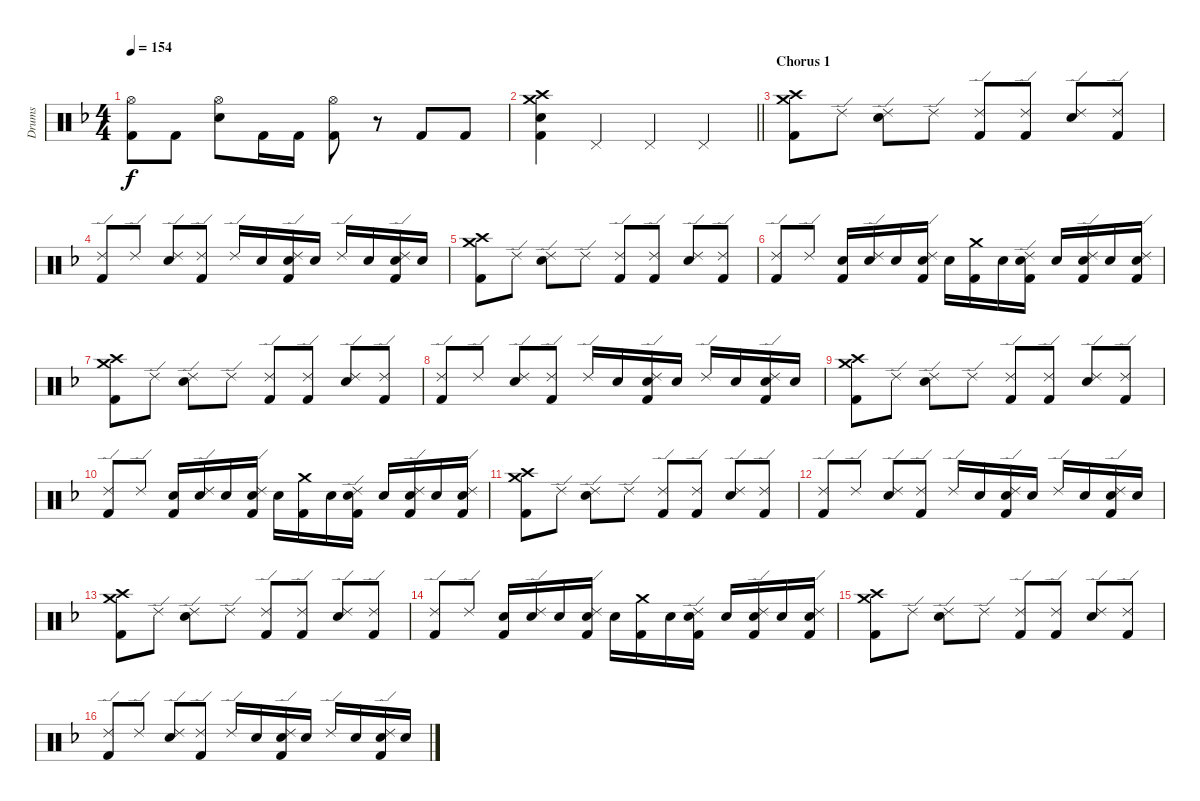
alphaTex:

\track ("Drums" "Drums") {instrument percussion}
\staff {score}
\articulation defaults
\ts (4 4)
\tempo 154
\clef neutral
\ks f
("Hi-Hat (open)" "Kick (hit) 2").8{dy f} "Kick (hit) 2".8 ("Hi-Hat (open)" "Electric Snare (hit)").8 "Kick (hit) 2".16 "Kick (hit) 2".16 ("Hi-Hat (open)" "Kick (hit) 2").8 r.8 "Kick (hit) 2".8 "Kick (hit) 2".8 |
\barLineRight lightlight
("Crash medium (hit)" "Crash high (hit)" "Electric Snare (hit)" "Kick (hit) 2").4 "Pedal Hi-Hat (hit)".4 "Pedal Hi-Hat (hit)".4 "Pedal Hi-Hat (hit)".4 |
\section ("" "Chorus 1")
("Crash high (hit)" "Crash medium (hit)" "Kick (hit) 2").8 "Ride (edge) 2".8 ("Ride (edge) 2" "Electric Snare (hit)").8 "Ride (edge) 2".8 ("Ride (edge) 2" "Kick (hit) 2").8 ("Ride (edge) 2" "Kick (hit) 2").8 ("Ride (edge) 2" "Electric Snare (hit)").8 ("Ride (edge) 2" "Kick (hit) 2").8 |
("Ride (edge) 2" "Kick (hit) 2").8 "Ride (edge) 2".8 ("Ride (edge) 2" "Electric Snare (hit)").8 ("Ride (edge) 2" "Kick (hit) 2").8 "Ride (edge) 2".16 "Electric Snare (hit)".16 ("Ride (edge) 2" "Electric Snare (hit)" "Kick (hit) 2").16 "Electric Snare (hit)".16 "Ride (edge) 2".16 "Electric Snare (hit)".16 ("Ride (edge) 2" "Electric Snare (hit)" "Kick (hit) 2").16 "Electric Snare (hit)".16 |
("Crash high (hit)" "Crash medium (hit)" "Kick (hit) 2").8 "Ride (edge) 2".8 ("Ride (edge) 2" "Electric Snare (hit)").8 "Ride (edge) 2".8 ("Ride (edge) 2" "Kick (hit) 2").8 ("Ride (edge) 2" "Kick (hit) 2").8 ("Ride (edge) 2" "Electric Snare (hit)").8 ("Ride (edge) 2" "Kick (hit) 2").8 |
("Ride (edge) 2" "Kick (hit) 2").8 "Ride (edge) 2".8 ("Electric Snare (hit)" "Kick (hit) 2").16 ("Ride (edge) 2" "Electric Snare (hit)").16 "Electric Snare (hit)".16 ("Ride (edge) 2" "Electric Snare (hit)" "Kick (hit) 2").16 "Electric Snare (hit)".16 ("Crash medium (hit)" "Kick (hit) 2").16 "Electric Snare (hit)".16 ("Ride (edge) 2" "Electric Snare (hit)" "Kick (hit) 2").16 "Electric Snare (hit)".16 ("Ride (edge) 2" "Electric Snare (hit)" "Kick (hit) 2").16 "Electric Snare (hit)".16 ("Ride (edge) 2" "Electric Snare (hit)" "Kick (hit) 2").16 |
("Crash high (hit)" "Crash medium (hit)" "Kick (hit) 2").8 "Ride (edge) 2".8 ("Ride (edge) 2" "Electric Snare (hit)").8 "Ride (edge) 2".8 ("Ride (edge) 2" "Kick (hit) 2").8 ("Ride (edge) 2" "Kick (hit) 2").8 ("Ride (edge) 2" "Electric Snare (hit)").8 ("Ride (edge) 2" "Kick (hit) 2").8 |
("Ride (edge) 2" "Kick (hit) 2").8 "Ride (edge) 2".8 ("Ride (edge) 2" "Electric Snare (hit)").8 ("Ride (edge) 2" "Kick (hit) 2").8 "Ride (edge) 2".16 "Electric Snare (hit)".16 ("Ride (edge) 2" "Electric Snare (hit)" "Kick (hit) 2").16 "Electric Snare (hit)".16 "Ride (edge) 2".16 "Electric Snare (hit)".16 ("Ride (edge) 2" "Electric Snare (hit)" "Kick (hit) 2").16 "Electric Snare (hit)".16 |
("Crash high (hit)" "Crash medium (hit)" "Kick (hit) 2").8 "Ride (edge) 2".8 ("Ride (edge) 2" "Electric Snare (hit)").8 "Ride (edge) 2".8 ("Ride (edge) 2" "Kick (hit) 2").8 ("Ride (edge) 2" "Kick (hit) 2").8 ("Ride (edge) 2" "Electric Snare (hit)").8 ("Ride (edge) 2" "Kick (hit) 2").8 |
("Ride (edge) 2" "Kick (hit) 2").8 "Ride (edge) 2".8 ("Electric Snare (hit)" "Kick (hit) 2").16 ("Ride (edge) 2" "Electric Snare (hit)").16 "Electric Snare (hit)".16 ("Ride (edge) 2" "Electric Snare (hit)" "Kick (hit) 2").16 "Electric Snare (hit)".16 ("Crash medium (hit)" "Kick (hit) 2").16 "Electric Snare (hit)".16 ("Ride (edge) 2" "Electric Snare (hit)" "Kick (hit) 2").16 "Electric Snare (hit)".16 ("Ride (edge) 2" "Electric Snare (hit)" "Kick (hit) 2").16 "Electric Snare (hit)".16 ("Ride (edge) 2" "Electric Snare (hit)" "Kick (hit) 2").16 |
("Crash high (hit)" "Crash medium (hit)" "Kick (hit) 2").8 "Ride (edge) 2".8 ("Ride (edge) 2" "Electric Snare (hit)").8 "Ride (edge) 2".8 ("Ride (edge) 2" "Kick (hit) 2").8 ("Ride (edge) 2" "Kick (hit) 2").8 ("Ride (edge) 2" "Electric Snare (hit)").8 ("Ride (edge) 2" "Kick (hit) 2").8 |
("Ride (edge) 2" "Kick (hit) 2").8 "Ride (edge) 2".8 ("Ride (edge) 2" "Electric Snare (hit)").8 ("Ride (edge) 2" "Kick (hit) 2").8 "Ride (edge) 2".16 "Electric Snare (hit)".16 ("Ride (edge) 2" "Electric Snare (hit)" "Kick (hit) 2").16 "Electric Snare (hit)".16 "Ride (edge) 2".16 "Electric Snare (hit)".16 ("Ride (edge) 2" "Electric Snare (hit)" "Kick (hit) 2").16 "Electric Snare (hit)".16 |
("Crash high (hit)" "Crash medium (hit)" "Kick (hit) 2").8 "Ride (edge) 2".8 ("Ride (edge) 2" "Electric Snare (hit)").8 "Ride (edge) 2".8 ("Ride (edge) 2" "Kick (hit) 2").8 ("Ride (edge) 2" "Kick (hit) 2").8 ("Ride (edge) 2" "Electric Snare (hit)").8 ("Ride (edge) 2" "Kick (hit) 2").8 |
("Ride (edge) 2" "Kick (hit) 2").8 "Ride (edge) 2".8 ("Electric Snare (hit)" "Kick (hit) 2").16 ("Ride (edge) 2" "Electric Snare (hit)").16 "Electric Snare (hit)".16 ("Ride (edge) 2" "Electric Snare (hit)" "Kick (hit) 2").16 "Electric Snare (hit)".16 ("Crash medium (hit)" "Kick (hit) 2").16 "Electric Snare (hit)".16 ("Ride (edge) 2" "Electric Snare (hit)" "Kick (hit) 2").16 "Electric Snare (hit)".16 ("Ride (edge) 2" "Electric Snare (hit)" "Kick (hit) 2").16 "Electric Snare (hit)".16 ("Ride (edge) 2" "Electric Snare (hit)" "Kick (hit) 2").16 |
("Crash high (hit)" "Crash medium (hit)" "Kick (hit) 2").8 "Ride (edge) 2".8 ("Ride (edge) 2" "Electric Snare (hit)").8 "Ride (edge) 2".8 ("Ride (edge) 2" "Kick (hit) 2").8 ("Ride (edge) 2" "Kick (hit) 2").8 ("Ride (edge) 2" "Electric Snare (hit)").8 ("Ride (edge) 2" "Kick (hit) 2").8 |
("Ride (edge) 2" "Kick (hit) 2").8 "Ride (edge) 2".8 ("Ride (edge) 2" "Electric Snare (hit)").8 ("Ride (edge) 2" "Kick (hit) 2").8 "Ride (edge) 2".16 "Electric Snare (hit)".16 ("Ride (edge) 2" "Electric Snare (hit)" "Kick (hit) 2").16 "Electric Snare (hit)".16 "Ride (edge) 2".16 "Electric Snare (hit)".16 ("Ride (edge) 2" "Electric Snare (hit)" "Kick (hit) 2").16 "Electric Snare (hit)".16
